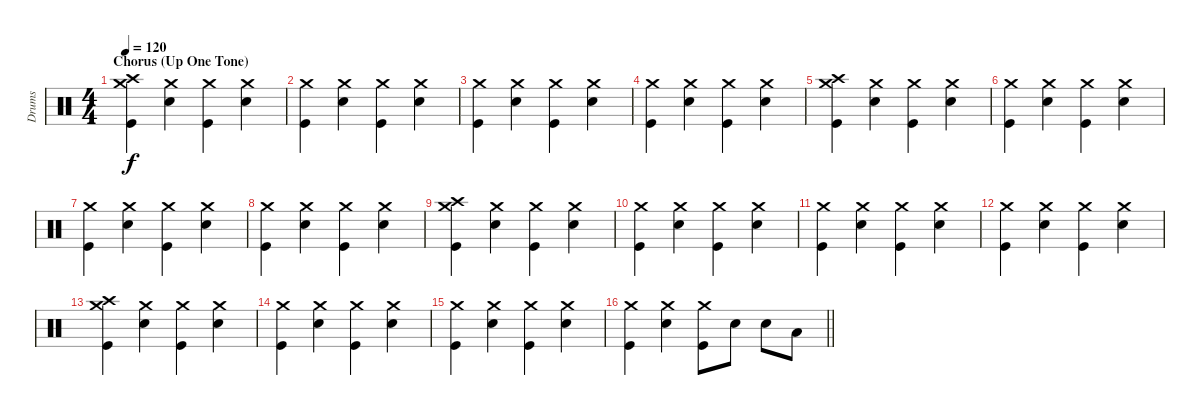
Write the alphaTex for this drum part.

\track ("Drums" "Drums") {instrument percussion}
\staff {score}
\articulation defaults
\ts (4 4)
\section ("" "Chorus (Up One Tone)")
\tempo 120
\clef neutral
\ks c
("Crash high (hit)" "Crash medium (hit)" "Kick (hit)").4{dy f} ("Crash medium (hit)" "Electric Snare (hit)").4 ("Crash medium (hit)" "Kick (hit)").4 ("Crash medium (hit)" "Electric Snare (hit)").4 |
("Crash medium (hit)" "Kick (hit)").4 ("Crash medium (hit)" "Electric Snare (hit)").4 ("Crash medium (hit)" "Kick (hit)").4 ("Crash medium (hit)" "Electric Snare (hit)").4 |
("Crash medium (hit)" "Kick (hit)").4 ("Crash medium (hit)" "Electric Snare (hit)").4 ("Crash medium (hit)" "Kick (hit)").4 ("Crash medium (hit)" "Electric Snare (hit)").4 |
("Crash medium (hit)" "Kick (hit)").4 ("Crash medium (hit)" "Electric Snare (hit)").4 ("Crash medium (hit)" "Kick (hit)").4 ("Crash medium (hit)" "Electric Snare (hit)").4 |
("Crash high (hit)" "Crash medium (hit)" "Kick (hit)").4 ("Crash medium (hit)" "Electric Snare (hit)").4 ("Crash medium (hit)" "Kick (hit)").4 ("Crash medium (hit)" "Electric Snare (hit)").4 |
("Crash medium (hit)" "Kick (hit)").4 ("Crash medium (hit)" "Electric Snare (hit)").4 ("Crash medium (hit)" "Kick (hit)").4 ("Crash medium (hit)" "Electric Snare (hit)").4 |
("Crash medium (hit)" "Kick (hit)").4 ("Crash medium (hit)" "Electric Snare (hit)").4 ("Crash medium (hit)" "Kick (hit)").4 ("Crash medium (hit)" "Electric Snare (hit)").4 |
("Crash medium (hit)" "Kick (hit)").4 ("Crash medium (hit)" "Electric Snare (hit)").4 ("Crash medium (hit)" "Kick (hit)").4 ("Crash medium (hit)" "Electric Snare (hit)").4 |
("Crash high (hit)" "Crash medium (hit)" "Kick (hit)").4 ("Crash medium (hit)" "Electric Snare (hit)").4 ("Crash medium (hit)" "Kick (hit)").4 ("Crash medium (hit)" "Electric Snare (hit)").4 |
("Crash medium (hit)" "Kick (hit)").4 ("Crash medium (hit)" "Electric Snare (hit)").4 ("Crash medium (hit)" "Kick (hit)").4 ("Crash medium (hit)" "Electric Snare (hit)").4 |
("Crash medium (hit)" "Kick (hit)").4 ("Crash medium (hit)" "Electric Snare (hit)").4 ("Crash medium (hit)" "Kick (hit)").4 ("Crash medium (hit)" "Electric Snare (hit)").4 |
("Crash medium (hit)" "Kick (hit)").4 ("Crash medium (hit)" "Electric Snare (hit)").4 ("Crash medium (hit)" "Kick (hit)").4 ("Crash medium (hit)" "Electric Snare (hit)").4 |
("Crash high (hit)" "Crash medium (hit)" "Kick (hit)").4 ("Crash medium (hit)" "Electric Snare (hit)").4 ("Crash medium (hit)" "Kick (hit)").4 ("Crash medium (hit)" "Electric Snare (hit)").4 |
("Crash medium (hit)" "Kick (hit)").4 ("Crash medium (hit)" "Electric Snare (hit)").4 ("Crash medium (hit)" "Kick (hit)").4 ("Crash medium (hit)" "Electric Snare (hit)").4 |
("Crash medium (hit)" "Kick (hit)").4 ("Crash medium (hit)" "Electric Snare (hit)").4 ("Crash medium (hit)" "Kick (hit)").4 ("Crash medium (hit)" "Electric Snare (hit)").4 |
\barLineRight lightlight
("Crash medium (hit)" "Kick (hit)").4 ("Crash medium (hit)" "Electric Snare (hit)").4 ("Crash medium (hit)" "Kick (hit)").8 "Electric Snare (hit)".8 "Electric Snare (hit)".8 "Low Tom (hit)".8
